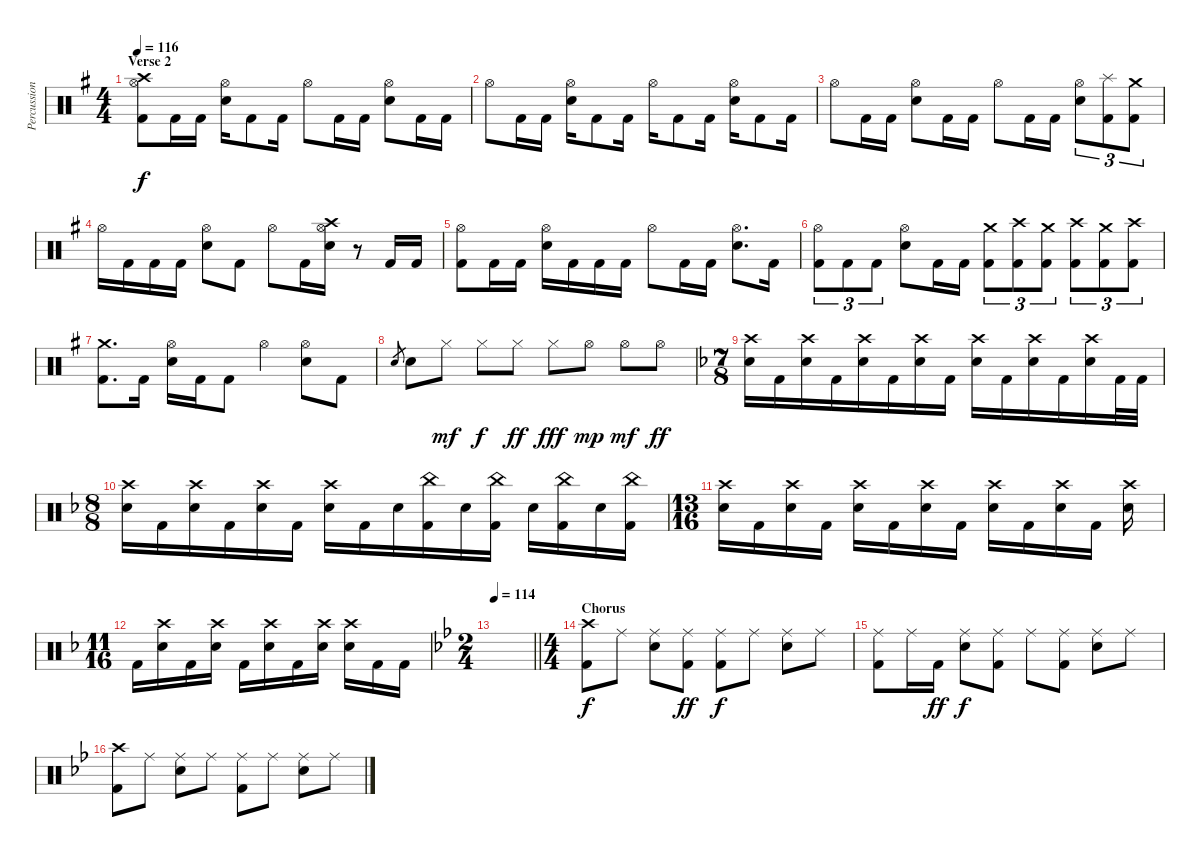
\track ("Percussions" "Percussion") {instrument percussion}
\staff {score}
\articulation defaults
\ts (4 4)
\section ("" "Verse 2")
\tempo 116
\clef neutral
\ks g
("Crash high (hit)" "Hi-Hat (open)" "Kick (hit) 2").8{dy f} "Kick (hit) 2".16 "Kick (hit) 2".16 ("Hi-Hat (open)" "Snare (hit) 2").16 "Kick (hit) 2".8 "Kick (hit) 2".16 "Hi-Hat (open)".8 "Kick (hit) 2".16 "Kick (hit) 2".16 ("Hi-Hat (open)" "Snare (hit) 2").8 "Kick (hit) 2".16 "Kick (hit) 2".16 |
"Hi-Hat (open)".8 "Kick (hit) 2".16 "Kick (hit) 2".16 ("Hi-Hat (open)" "Snare (hit) 2").16 "Kick (hit) 2".8 "Kick (hit) 2".16 "Hi-Hat (open)".16 "Kick (hit) 2".8 "Kick (hit) 2".16 ("Hi-Hat (open)" "Snare (hit) 2").16 "Kick (hit) 2".8 "Kick (hit) 2".16 |
"Hi-Hat (open)".8 "Kick (hit) 2".16 "Kick (hit) 2".16 ("Hi-Hat (open)" "Snare (hit) 2").8 "Kick (hit) 2".16 "Kick (hit) 2".16 "Hi-Hat (open)".8 "Kick (hit) 2".16 "Kick (hit) 2".16 ("Hi-Hat (open)" "Snare (hit) 2").8{tu (3 2)} ("Splash (hit)" "Kick (hit) 2").8{tu (3 2)} ("Crash medium (hit)" "Kick (hit) 2").8{tu (3 2)} |
"Hi-Hat (open)".16 "Kick (hit) 2".16 "Kick (hit) 2".16 "Kick (hit) 2".16 ("Hi-Hat (open)" "Snare (hit) 2").8 "Kick (hit) 2".8 "Hi-Hat (open)".8 "Kick (hit) 2".16 ("Crash high (hit)" "Hi-Hat (open)" "Snare (hit) 2").16 r.8 "Kick (hit) 2".16 "Kick (hit) 2".16 |
("Hi-Hat (open)" "Kick (hit) 2").8 "Kick (hit) 2".16 "Kick (hit) 2".16 ("Hi-Hat (open)" "Snare (hit) 2").16 "Kick (hit) 2".16 "Kick (hit) 2".16 "Kick (hit) 2".16 "Hi-Hat (open)".8 "Kick (hit) 2".16 "Kick (hit) 2".16 ("Hi-Hat (open)" "Snare (hit) 2").8{d} "Kick (hit) 2".16 |
("Hi-Hat (open)" "Kick (hit) 2").8{tu (3 2)} "Kick (hit) 2".8{tu (3 2)} "Kick (hit) 2".8{tu (3 2)} ("Hi-Hat (open)" "Snare (hit) 2").8 "Kick (hit) 2".16 "Kick (hit) 2".16 ("Crash medium (hit)" "Kick (hit) 2").8{tu (3 2)} ("Crash high (hit)" "Kick (hit) 2").8{tu (3 2)} ("Crash medium (hit)" "Kick (hit) 2").8{tu (3 2)} ("Crash high (hit)" "Kick (hit) 2").8{tu (3 2)} ("Crash medium (hit)" "Kick (hit) 2").8{tu (3 2)} ("Crash high (hit)" "Kick (hit) 2").8{tu (3 2)} |
("Crash medium (hit)" "Kick (hit) 2").8{d} "Kick (hit) 2".16 ("Hi-Hat (open)" "Snare (hit) 2").16 "Kick (hit) 2".16 "Kick (hit) 2".8 "Hi-Hat (open)".4 ("Hi-Hat (open)" "Snare (hit) 2").8 "Kick (hit) 2".8 |
"Snare (hit) 2".8{gr} "Snare (hit) 2".8 "Hi-Hat (closed)".8{dy mf} "Hi-Hat (closed)".8{dy f} "Hi-Hat (closed)".8{dy ff} "Hi-Hat (closed)".8{dy fff} "Hi-Hat (open)".8{dy mp} "Hi-Hat (open)".8{dy mf} "Hi-Hat (open)".8{dy ff} |
\ts (7 8)
\ks f
("Crash high (hit)" "Snare (hit) 2").16 "Kick (hit) 2".16 ("Crash high (hit)" "Snare (hit) 2").16 "Kick (hit) 2".16 ("Crash high (hit)" "Snare (hit) 2").16 "Kick (hit) 2".16 ("Crash high (hit)" "Snare (hit) 2").16 "Kick (hit) 2".16 ("Crash high (hit)" "Snare (hit) 2").16 "Kick (hit) 2".16 ("Crash high (hit)" "Snare (hit) 2").16 "Kick (hit) 2".16 ("Crash high (hit)" "Snare (hit) 2").16 "Kick (hit) 2".32 "Kick (hit) 2".32 |
\ts (8 8)
("Crash high (hit)" "Snare (hit) 2").16 "Kick (hit) 2".16 ("Crash high (hit)" "Snare (hit) 2").16 "Kick (hit) 2".16 ("Crash high (hit)" "Snare (hit) 2").16 "Kick (hit) 2".16 ("Crash high (hit)" "Snare (hit) 2").16 "Kick (hit) 2".16 "Snare (hit) 2".16 ("China (hit)" "Kick (hit) 2").16 "Snare (hit) 2".16 ("China (hit)" "Kick (hit) 2").16 "Snare (hit) 2".16 ("China (hit)" "Kick (hit) 2").16 "Snare (hit) 2".16 ("China (hit)" "Kick (hit) 2").16 |
\ts (13 16)
("Crash high (hit)" "Snare (hit) 2").16 "Kick (hit) 2".16 ("Crash high (hit)" "Snare (hit) 2").16 "Kick (hit) 2".16 ("Crash high (hit)" "Snare (hit) 2").16 "Kick (hit) 2".16 ("Crash high (hit)" "Snare (hit) 2").16 "Kick (hit) 2".16 ("Crash high (hit)" "Snare (hit) 2").16 "Kick (hit) 2".16 ("Crash high (hit)" "Snare (hit) 2").16 "Kick (hit) 2".16 ("Crash high (hit)" "Snare (hit) 2").16 |
\ts (11 16)
"Kick (hit) 2".16 ("Crash high (hit)" "Snare (hit) 2").16 "Kick (hit) 2".16 ("Crash high (hit)" "Snare (hit) 2").16 "Kick (hit) 2".16 ("Crash high (hit)" "Snare (hit) 2").16 "Kick (hit) 2".16 ("Crash high (hit)" "Snare (hit) 2").16 ("Crash high (hit)" "Snare (hit) 2").16 "Kick (hit) 2".16 "Kick (hit) 2".16 |
\ts (2 4)
\tempo 114
\barLineRight lightlight
\ks bb
|
\ts (4 4)
\section ("" "Chorus")
("Crash high (hit)" "Kick (hit) 2").8{dy f} "Ride (middle)".8 ("Ride (middle)" "Snare (hit) 2").8 ("Ride (middle)" "Kick (hit) 2").8{dy ff} ("Ride (middle)" "Kick (hit) 2").8{dy f} "Ride (middle)".8 ("Ride (middle)" "Snare (hit) 2").8 "Ride (middle)".8 |
("Ride (middle)" "Kick (hit) 2").8 "Ride (middle)".16 "Kick (hit) 2".16{dy ff} ("Ride (middle)" "Snare (hit) 2").8{dy f} ("Ride (middle)" "Kick (hit) 2").8 "Ride (middle)".8 ("Ride (middle)" "Kick (hit) 2").8 ("Ride (middle)" "Snare (hit) 2").8 "Ride (middle)".8 |
("Crash high (hit)" "Kick (hit) 2").8 "Ride (middle)".8 ("Ride (middle)" "Snare (hit) 2").8 "Ride (middle)".8 ("Ride (middle)" "Kick (hit) 2").8 "Ride (middle)".8 ("Ride (middle)" "Snare (hit) 2").8 "Ride (middle)".8
